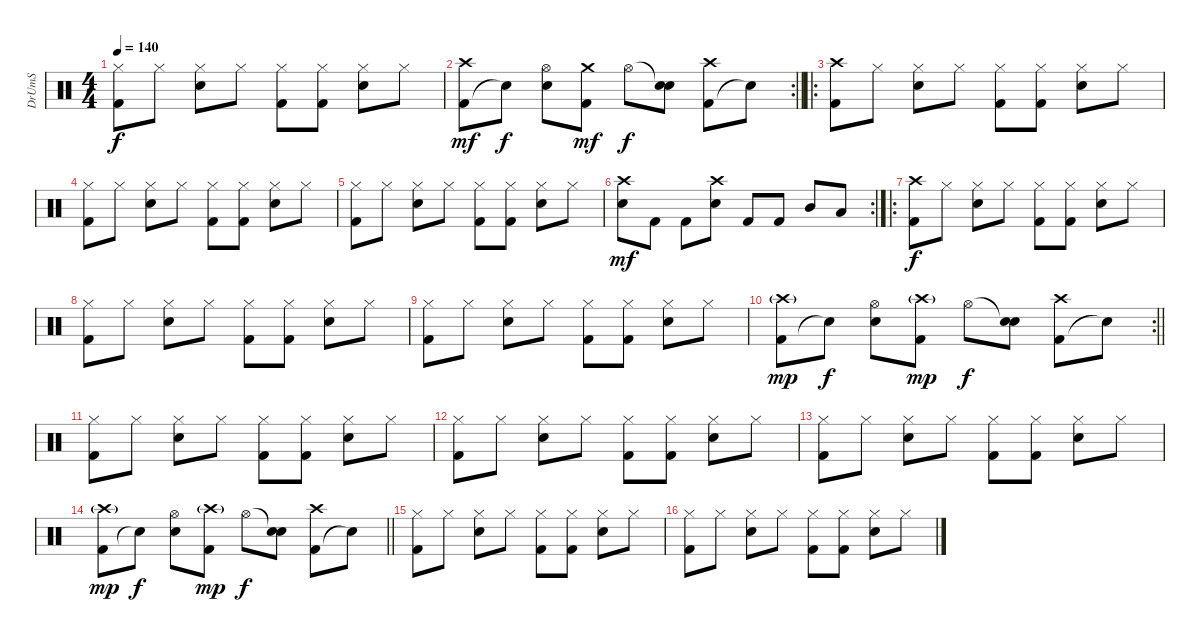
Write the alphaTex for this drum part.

\track ("DrUmS" "DrUmS") {instrument percussion}
\staff {score}
\articulation defaults
\ts (4 4)
\tempo 140
\clef neutral
\ks c
("Kick (hit) 2" "Hi-Hat (closed)").8{dy f} "Hi-Hat (closed)".8 ("Hi-Hat (closed)" "Snare (hit) 2").8 "Hi-Hat (closed)".8 ("Kick (hit) 2" "Hi-Hat (closed)").8 ("Kick (hit) 2" "Hi-Hat (closed)").8 ("Hi-Hat (closed)" "Snare (hit) 2").8 "Hi-Hat (closed)".8 |
\rc 2
\barLineRight lightlight
("Kick (hit) 2" "Crash high (hit)").8{dy mf} "Snare (hit)"{t}.8{dy f} ("Hi-Hat (open)" "Snare (hit) 2").8 ("Kick (hit) 2" "Crash medium (hit)").8{dy mf} "Hi-Hat (open)".8{dy f} ("Snare (hit)"{t} "Snare (hit) 2").8 ("Kick (hit) 2" "Crash high (hit)").8 "Snare (hit)"{t}.8 |
\ro
("Kick (hit) 2" "Crash high (hit)").8 "Hi-Hat (closed)".8 ("Hi-Hat (closed)" "Snare (hit) 2").8 "Hi-Hat (closed)".8 ("Kick (hit) 2" "Hi-Hat (closed)").8 ("Kick (hit) 2" "Hi-Hat (closed)").8 ("Hi-Hat (closed)" "Snare (hit) 2").8 "Hi-Hat (closed)".8 |
("Kick (hit) 2" "Hi-Hat (closed)").8 "Hi-Hat (closed)".8 ("Hi-Hat (closed)" "Snare (hit) 2").8 "Hi-Hat (closed)".8 ("Kick (hit) 2" "Hi-Hat (closed)").8 ("Kick (hit) 2" "Hi-Hat (closed)").8 ("Hi-Hat (closed)" "Snare (hit) 2").8 "Hi-Hat (closed)".8 |
("Kick (hit) 2" "Hi-Hat (closed)").8 "Hi-Hat (closed)".8 ("Hi-Hat (closed)" "Snare (hit) 2").8 "Hi-Hat (closed)".8 ("Kick (hit) 2" "Hi-Hat (closed)").8 ("Kick (hit) 2" "Hi-Hat (closed)").8 ("Hi-Hat (closed)" "Snare (hit) 2").8 "Hi-Hat (closed)".8 |
\rc 2
("Snare (hit) 2" "Crash high (hit)").8{dy mf} "Kick (hit) 2".8 "Kick (hit) 2".8 ("Snare (hit) 2" "Crash high (hit)").8 "Kick (hit) 2".8 "Kick (hit) 2".8 "Mid Tom (hit)".8 "Low Tom (hit)".8 |
\ro
("Kick (hit) 2" "Crash high (hit)").8{dy f} "Hi-Hat (closed)".8 ("Hi-Hat (closed)" "Snare (hit) 2").8 "Hi-Hat (closed)".8 ("Kick (hit) 2" "Hi-Hat (closed)").8 ("Kick (hit) 2" "Hi-Hat (closed)").8 ("Hi-Hat (closed)" "Snare (hit) 2").8 "Hi-Hat (closed)".8 |
("Kick (hit) 2" "Hi-Hat (closed)").8 "Hi-Hat (closed)".8 ("Hi-Hat (closed)" "Snare (hit) 2").8 "Hi-Hat (closed)".8 ("Kick (hit) 2" "Hi-Hat (closed)").8 ("Kick (hit) 2" "Hi-Hat (closed)").8 ("Hi-Hat (closed)" "Snare (hit) 2").8 "Hi-Hat (closed)".8 |
("Kick (hit) 2" "Hi-Hat (closed)").8 "Hi-Hat (closed)".8 ("Hi-Hat (closed)" "Snare (hit) 2").8 "Hi-Hat (closed)".8 ("Kick (hit) 2" "Hi-Hat (closed)").8 ("Kick (hit) 2" "Hi-Hat (closed)").8 ("Hi-Hat (closed)" "Snare (hit) 2").8 "Hi-Hat (closed)".8 |
\rc 2
\barLineRight lightlight
("Kick (hit) 2" "Crash high (hit)"{g}).8{dy mp} "Snare (hit)"{t}.8{dy f} ("Hi-Hat (open)" "Snare (hit) 2").8 ("Kick (hit) 2" "Crash high (hit)"{g}).8{dy mp} "Hi-Hat (open)".8{dy f} ("Snare (hit)"{t} "Snare (hit) 2").8 ("Kick (hit) 2" "Crash high (hit)").8 "Snare (hit)"{t}.8 |
("Kick (hit) 2" "Hi-Hat (closed)").8 "Hi-Hat (closed)".8 ("Hi-Hat (closed)" "Snare (hit) 2").8 "Hi-Hat (closed)".8 ("Kick (hit) 2" "Hi-Hat (closed)").8 ("Kick (hit) 2" "Hi-Hat (closed)").8 ("Hi-Hat (closed)" "Snare (hit) 2").8 "Hi-Hat (closed)".8 |
("Kick (hit) 2" "Hi-Hat (closed)").8 "Hi-Hat (closed)".8 ("Hi-Hat (closed)" "Snare (hit) 2").8 "Hi-Hat (closed)".8 ("Kick (hit) 2" "Hi-Hat (closed)").8 ("Kick (hit) 2" "Hi-Hat (closed)").8 ("Hi-Hat (closed)" "Snare (hit) 2").8 "Hi-Hat (closed)".8 |
("Kick (hit) 2" "Hi-Hat (closed)").8 "Hi-Hat (closed)".8 ("Hi-Hat (closed)" "Snare (hit) 2").8 "Hi-Hat (closed)".8 ("Kick (hit) 2" "Hi-Hat (closed)").8 ("Kick (hit) 2" "Hi-Hat (closed)").8 ("Hi-Hat (closed)" "Snare (hit) 2").8 "Hi-Hat (closed)".8 |
\barLineRight lightlight
("Kick (hit) 2" "Crash high (hit)"{g}).8{dy mp} "Snare (hit)"{t}.8{dy f} ("Hi-Hat (open)" "Snare (hit) 2").8 ("Kick (hit) 2" "Crash high (hit)"{g}).8{dy mp} "Hi-Hat (open)".8{dy f} ("Snare (hit)"{t} "Snare (hit) 2").8 ("Kick (hit) 2" "Crash high (hit)").8 "Snare (hit)"{t}.8 |
("Kick (hit) 2" "Hi-Hat (closed)").8 "Hi-Hat (closed)".8 ("Hi-Hat (closed)" "Snare (hit) 2").8 "Hi-Hat (closed)".8 ("Kick (hit) 2" "Hi-Hat (closed)").8 ("Kick (hit) 2" "Hi-Hat (closed)").8 ("Hi-Hat (closed)" "Snare (hit) 2").8 "Hi-Hat (closed)".8 |
("Kick (hit) 2" "Hi-Hat (closed)").8 "Hi-Hat (closed)".8 ("Hi-Hat (closed)" "Snare (hit) 2").8 "Hi-Hat (closed)".8 ("Kick (hit) 2" "Hi-Hat (closed)").8 ("Kick (hit) 2" "Hi-Hat (closed)").8 ("Hi-Hat (closed)" "Snare (hit) 2").8 "Hi-Hat (closed)".8
